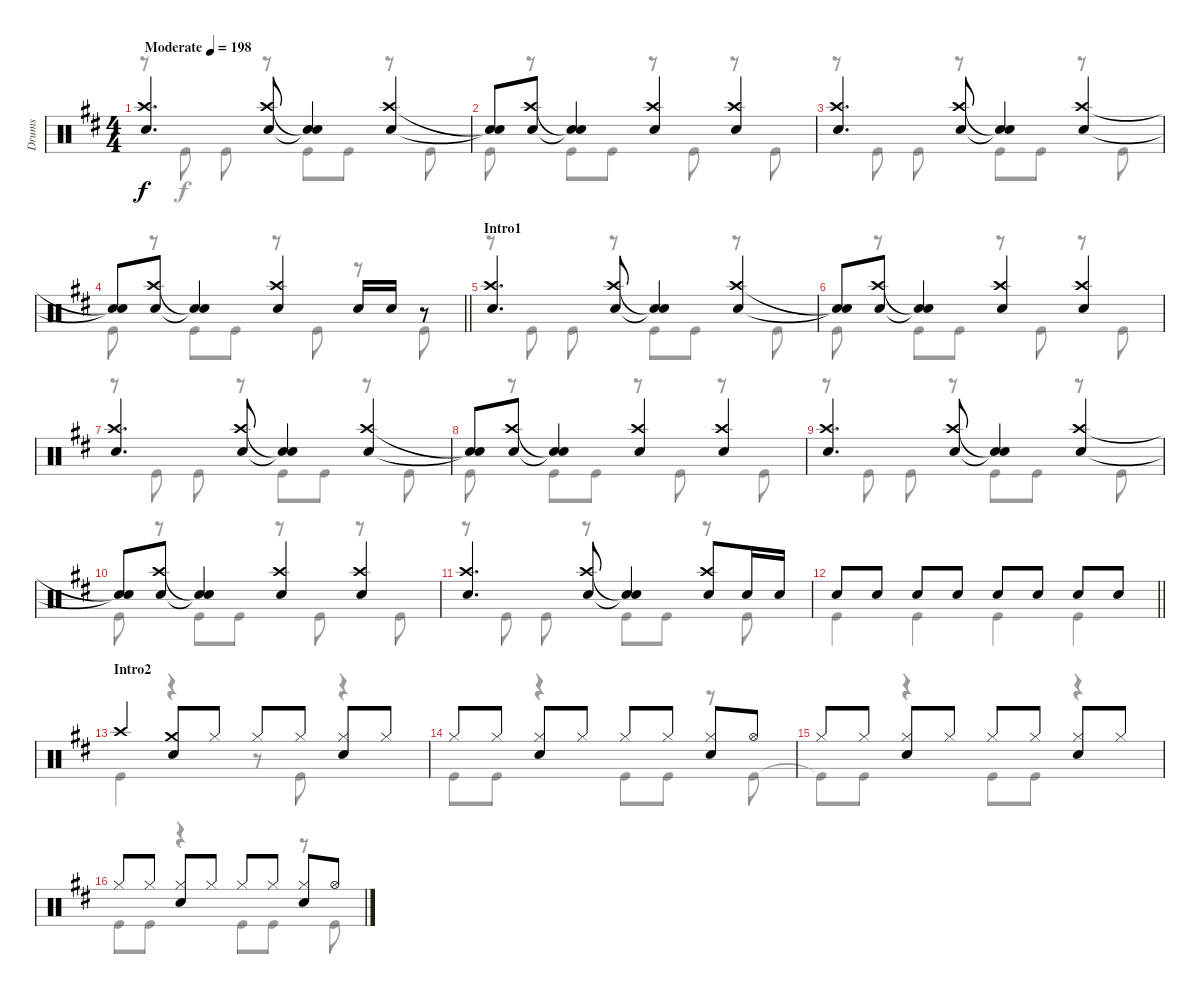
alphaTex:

\track ("Drums" "Drums") {instrument percussion}
\staff {score}
\articulation defaults
\voice
\ts (4 4)
\tempo (198 "Moderate")
\clef neutral
\ks d
("Crash high (hit)" "Snare (hit) 2").4{d dy f} ("Crash high (hit)" "Snare (hit) 2").8 ("Snare (hit)"{t} "Snare (hit)"{t}).4 ("Crash high (hit)" "Snare (hit) 2").4 |
("Snare (hit)"{t} "Snare (hit)"{t}).8 ("Crash high (hit)" "Snare (hit) 2").8 ("Snare (hit)"{t} "Snare (hit)"{t}).4 ("Crash high (hit)" "Snare (hit) 2").4 ("Crash high (hit)" "Snare (hit) 2").4 |
("Crash high (hit)" "Snare (hit) 2").4{d} ("Crash high (hit)" "Snare (hit) 2").8 ("Snare (hit)"{t} "Snare (hit)"{t}).4 ("Crash high (hit)" "Snare (hit) 2").4 |
\barLineRight lightlight
("Snare (hit)"{t} "Snare (hit)"{t}).8 ("Crash high (hit)" "Snare (hit) 2").8 ("Snare (hit)"{t} "Snare (hit)"{t}).4 ("Crash high (hit)" "Snare (hit) 2").4 "Snare (hit) 2".16 "Snare (hit) 2".16 r.8 |
\section ("" "Intro1")
("Crash high (hit)" "Snare (hit) 2").4{d} ("Crash high (hit)" "Snare (hit) 2").8 ("Snare (hit)"{t} "Snare (hit)"{t}).4 ("Crash high (hit)" "Snare (hit) 2").4 |
("Snare (hit)"{t} "Snare (hit)"{t}).8 ("Crash high (hit)" "Snare (hit) 2").8 ("Snare (hit)"{t} "Snare (hit)"{t}).4 ("Crash high (hit)" "Snare (hit) 2").4 ("Crash high (hit)" "Snare (hit) 2").4 |
("Crash high (hit)" "Snare (hit) 2").4{d} ("Crash high (hit)" "Snare (hit) 2").8 ("Snare (hit)"{t} "Snare (hit)"{t}).4 ("Crash high (hit)" "Snare (hit) 2").4 |
("Snare (hit)"{t} "Snare (hit)"{t}).8 ("Crash high (hit)" "Snare (hit) 2").8 ("Snare (hit)"{t} "Snare (hit)"{t}).4 ("Crash high (hit)" "Snare (hit) 2").4 ("Crash high (hit)" "Snare (hit) 2").4 |
("Crash high (hit)" "Snare (hit) 2").4{d} ("Crash high (hit)" "Snare (hit) 2").8 ("Snare (hit)"{t} "Snare (hit)"{t}).4 ("Crash high (hit)" "Snare (hit) 2").4 |
("Snare (hit)"{t} "Snare (hit)"{t}).8 ("Crash high (hit)" "Snare (hit) 2").8 ("Snare (hit)"{t} "Snare (hit)"{t}).4 ("Crash high (hit)" "Snare (hit) 2").4 ("Crash high (hit)" "Snare (hit) 2").4 |
("Crash high (hit)" "Snare (hit) 2").4{d} ("Crash high (hit)" "Snare (hit) 2").8 ("Snare (hit)"{t} "Snare (hit)"{t}).4 ("Crash high (hit)" "Snare (hit) 2").8 "Snare (hit) 2".16 "Snare (hit) 2".16 |
\barLineRight lightlight "Snare (hit) 2".8 "Snare (hit) 2".8 "Snare (hit) 2".8 "Snare (hit) 2".8 "Snare (hit) 2".8 "Snare (hit) 2".8 "Snare (hit) 2".8 "Snare (hit) 2".8
|
\section ("" "Intro2")
"Crash high (hit)".4 ("Crash medium (hit)" "Snare (hit) 2").8 "Hi-Hat (closed)".8 "Hi-Hat (closed)".8 "Hi-Hat (closed)".8 ("Hi-Hat (closed)" "Snare (hit) 2").8 "Hi-Hat (closed)".8 |
"Hi-Hat (closed)".8 "Hi-Hat (closed)".8 ("Hi-Hat (closed)" "Snare (hit) 2").8 "Hi-Hat (closed)".8 "Hi-Hat (closed)".8 "Hi-Hat (closed)".8 ("Hi-Hat (closed)" "Snare (hit) 2").8 "Hi-Hat (open)".8 |
"Hi-Hat (closed)".8 "Hi-Hat (closed)".8 ("Hi-Hat (closed)" "Snare (hit) 2").8 "Hi-Hat (closed)".8 "Hi-Hat (closed)".8 "Hi-Hat (closed)".8 ("Hi-Hat (closed)" "Snare (hit) 2").8 "Hi-Hat (closed)".8 |
"Hi-Hat (closed)".8 "Hi-Hat (closed)".8 ("Hi-Hat (closed)" "Snare (hit) 2").8 "Hi-Hat (closed)".8 "Hi-Hat (closed)".8 "Hi-Hat (closed)".8 ("Hi-Hat (closed)" "Snare (hit) 2").8 "Hi-Hat (open)".8
\voice
\clef neutral
\ottava regular
\simile none
\ks d
r.8{dy f} "Kick (hit)".8 "Kick (hit)".8 r.8 "Kick (hit)".8 "Kick (hit)".8 r.8 "Kick (hit)".8 |
"Kick (hit)".8 r.8 "Kick (hit)".8 "Kick (hit)".8 r.8 "Kick (hit)".8 r.8 "Kick (hit)".8 |
r.8 "Kick (hit)".8 "Kick (hit)".8 r.8 "Kick (hit)".8 "Kick (hit)".8 r.8 "Kick (hit)".8 |
\barLineRight lightlight "Kick (hit)".8
r.8 "Kick (hit)".8 "Kick (hit)".8 r.8 "Kick (hit)".8 r.8 "Kick (hit)".8 |
r.8 "Kick (hit)".8 "Kick (hit)".8 r.8 "Kick (hit)".8 "Kick (hit)".8 r.8 "Kick (hit)".8 |
"Kick (hit)".8 r.8 "Kick (hit)".8 "Kick (hit)".8 r.8 "Kick (hit)".8 r.8 "Kick (hit)".8 |
r.8 "Kick (hit)".8 "Kick (hit)".8 r.8 "Kick (hit)".8 "Kick (hit)".8 r.8 "Kick (hit)".8 |
"Kick (hit)".8 r.8 "Kick (hit)".8 "Kick (hit)".8 r.8 "Kick (hit)".8 r.8 "Kick (hit)".8 |
r.8 "Kick (hit)".8 "Kick (hit)".8 r.8 "Kick (hit)".8 "Kick (hit)".8 r.8 "Kick (hit)".8 |
"Kick (hit)".8 r.8 "Kick (hit)".8 "Kick (hit)".8 r.8 "Kick (hit)".8 r.8 "Kick (hit)".8 |
r.8 "Kick (hit)".8 "Kick (hit)".8 r.8 "Kick (hit)".8 "Kick (hit)".8 r.8 "Kick (hit)".8 |
\barLineRight lightlight "Kick (hit)".4 "Kick (hit)".4 "Kick (hit)".4 "Kick (hit)".4
|
"Kick (hit)".4 r.4 r.8 "Kick (hit)".8 r.4 |
"Kick (hit)".8 "Kick (hit)".8 r.4 "Kick (hit)".8 "Kick (hit)".8 r.8 "Kick (hit)".8 |
"Kick (hit)"{t}.8 "Kick (hit)".8 r.4 "Kick (hit)".8 "Kick (hit)".8 r.4 |
"Kick (hit)".8 "Kick (hit)".8 r.4 "Kick (hit)".8 "Kick (hit)".8 r.8 "Kick (hit)".8
